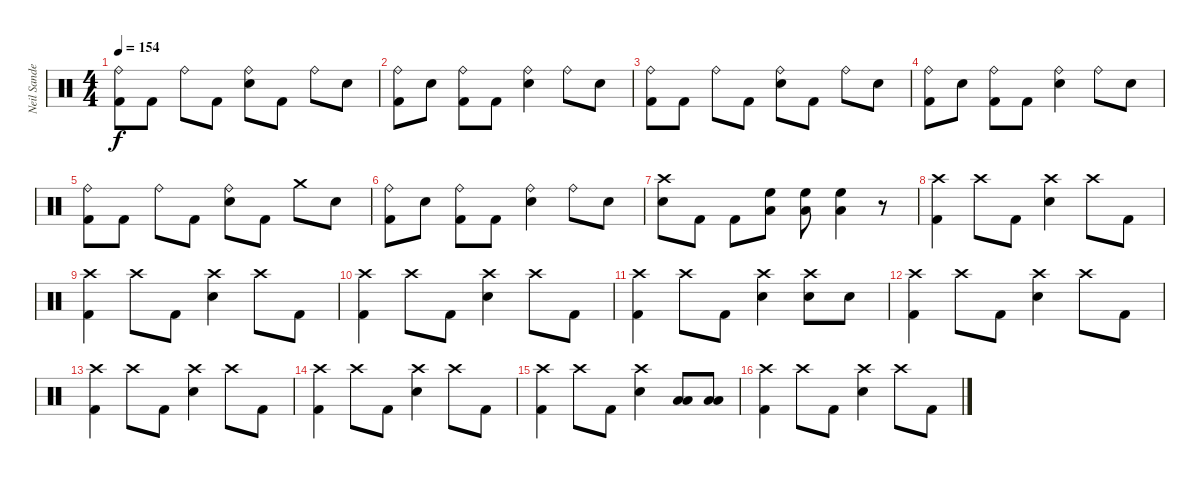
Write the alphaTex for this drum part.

\track ("Neil Sanderson" "Neil Sande") {instrument percussion}
\staff {score}
\articulation defaults
\ts (4 4)
\tempo 154
\clef neutral
\ks c
("Ride (bell)" "Kick (hit) 2").8{dy f} "Kick (hit) 2".8 "Ride (bell)".8 "Kick (hit) 2".8 ("Ride (bell)" "Snare (hit) 2").8 "Kick (hit) 2".8 "Ride (bell)".8 "Snare (hit) 2".8 |
("Ride (bell)" "Kick (hit) 2").8 "Snare (hit) 2".8 ("Ride (bell)" "Kick (hit) 2").8 "Kick (hit) 2".8 ("Ride (bell)" "Snare (hit) 2").4 "Ride (bell)".8 "Snare (hit) 2".8 |
("Ride (bell)" "Kick (hit) 2").8 "Kick (hit) 2".8 "Ride (bell)".8 "Kick (hit) 2".8 ("Ride (bell)" "Snare (hit) 2").8 "Kick (hit) 2".8 "Ride (bell)".8 "Snare (hit) 2".8 |
("Ride (bell)" "Kick (hit) 2").8 "Snare (hit) 2".8 ("Ride (bell)" "Kick (hit) 2").8 "Kick (hit) 2".8 ("Ride (bell)" "Snare (hit) 2").4 "Ride (bell)".8 "Snare (hit) 2".8 |
("Ride (bell)" "Kick (hit) 2").8 "Kick (hit) 2".8 "Ride (bell)".8 "Kick (hit) 2".8 ("Ride (bell)" "Snare (hit) 2").8 "Kick (hit) 2".8 "Crash medium (hit)".8 "Snare (hit) 2".8 |
("Ride (bell)" "Kick (hit) 2").8 "Snare (hit) 2".8 ("Ride (bell)" "Kick (hit) 2").8 "Kick (hit) 2".8 ("Ride (bell)" "Snare (hit) 2").4 "Ride (bell)".8 "Snare (hit) 2".8 |
("Crash high (hit)" "Snare (hit) 2").8 "Kick (hit) 2".8 "Kick (hit) 2".8 ("High Floor Tom (hit)" "Low Tom (hit)").8 ("High Floor Tom (hit)" "Low Tom (hit)").8 ("High Floor Tom (hit)" "Low Tom (hit)").4 r.8 |
("Crash high (hit)" "Kick (hit) 2").4 "Crash high (hit)".8 "Kick (hit) 2".8 ("Crash high (hit)" "Snare (hit) 2").4 "Crash high (hit)".8 "Kick (hit) 2".8 |
("Crash high (hit)" "Kick (hit) 2").4 "Crash high (hit)".8 "Kick (hit) 2".8 ("Crash high (hit)" "Snare (hit) 2").4 "Crash high (hit)".8 "Kick (hit) 2".8 |
("Crash high (hit)" "Kick (hit) 2").4 "Crash high (hit)".8 "Kick (hit) 2".8 ("Crash high (hit)" "Snare (hit) 2").4 "Crash high (hit)".8 "Kick (hit) 2".8 |
("Crash high (hit)" "Kick (hit) 2").4 "Crash high (hit)".8 "Kick (hit) 2".8 ("Crash high (hit)" "Snare (hit) 2").4 ("Crash high (hit)" "Snare (hit) 2").8 "Snare (hit) 2".8 |
("Crash high (hit)" "Kick (hit) 2").4 "Crash high (hit)".8 "Kick (hit) 2".8 ("Crash high (hit)" "Snare (hit) 2").4 "Crash high (hit)".8 "Kick (hit) 2".8 |
("Crash high (hit)" "Kick (hit) 2").4 "Crash high (hit)".8 "Kick (hit) 2".8 ("Crash high (hit)" "Snare (hit) 2").4 "Crash high (hit)".8 "Kick (hit) 2".8 |
("Crash high (hit)" "Kick (hit) 2").4 "Crash high (hit)".8 "Kick (hit) 2".8 ("Crash high (hit)" "Snare (hit) 2").4 "Crash high (hit)".8 "Kick (hit) 2".8 |
("Crash high (hit)" "Kick (hit) 2").4 "Crash high (hit)".8 "Kick (hit) 2".8 ("Crash high (hit)" "Snare (hit) 2").4 ("Low Tom (hit)" "Low Floor Tom (hit)").8 ("Low Tom (hit)" "Low Floor Tom (hit)").8 |
("Crash high (hit)" "Kick (hit) 2").4 "Crash high (hit)".8 "Kick (hit) 2".8 ("Crash high (hit)" "Snare (hit) 2").4 "Crash high (hit)".8 "Kick (hit) 2".8
